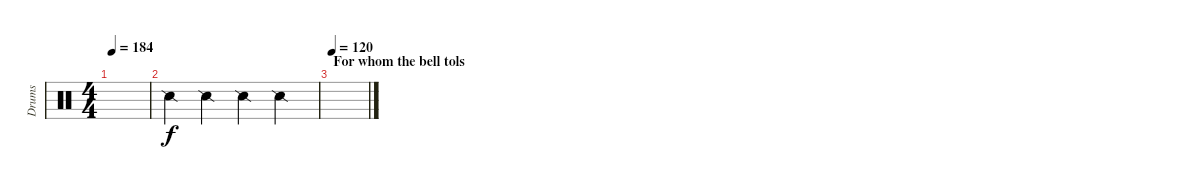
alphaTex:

\track ("Drums" "Drums") {instrument percussion}
\staff {score}
\articulation defaults
\ts (4 4)
\tempo 184
\clef neutral
\ks c
|
"Snare (side stick) 2".4 "Snare (side stick) 2".4 "Snare (side stick) 2".4 "Snare (side stick) 2".4 |
\section ("" "For whom the bell tols")
\tempo 120
